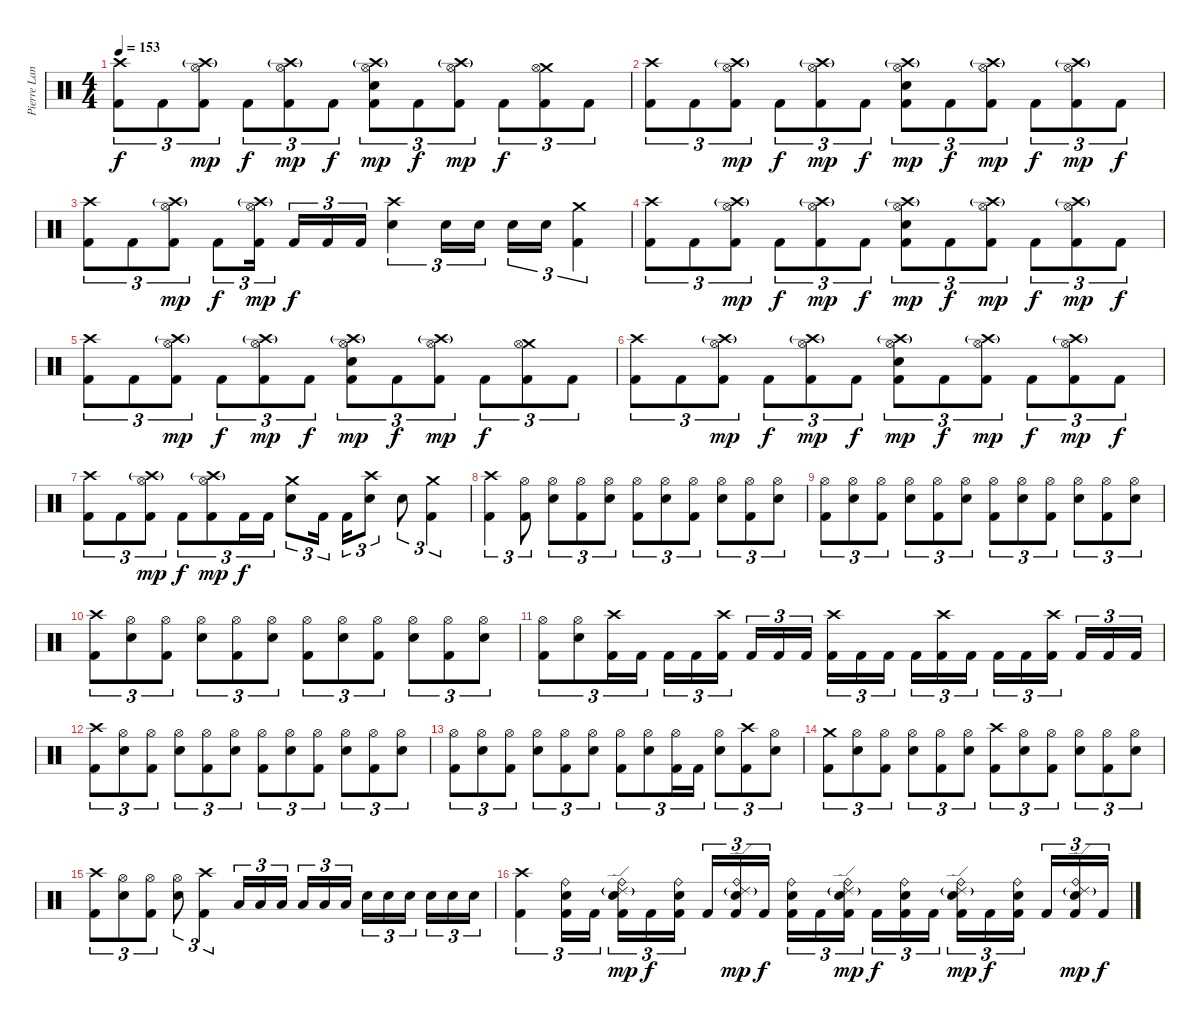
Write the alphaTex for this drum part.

\track ("Pierre Langlois (Drums)" "Pierre Lan") {instrument percussion}
\staff {score}
\articulation defaults
\ts (4 4)
\tempo 153
\clef neutral
\ks c
("Crash high (hit)" "Kick (hit) 2").8{tu (3 2) dy f} "Kick (hit) 2".8{tu (3 2)} ("Crash high (hit)"{g} "Hi-Hat (open)" "Kick (hit) 2").8{tu (3 2) dy mp} "Kick (hit) 2".8{tu (3 2) dy f} ("Crash high (hit)"{g} "Hi-Hat (open)" "Kick (hit) 2").8{tu (3 2) dy mp} "Kick (hit) 2".8{tu (3 2) dy f} ("Crash high (hit)"{g} "Snare (hit) 2" "Hi-Hat (open)" "Kick (hit) 2").8{tu (3 2) dy mp} "Kick (hit) 2".8{tu (3 2) dy f} ("Crash high (hit)"{g} "Hi-Hat (open)" "Kick (hit) 2").8{tu (3 2) dy mp} "Kick (hit) 2".8{tu (3 2) dy f} ("Crash medium (hit)" "Hi-Hat (open)" "Kick (hit) 2").8{tu (3 2)} "Kick (hit) 2".8{tu (3 2)} |
("Crash high (hit)" "Kick (hit) 2").8{tu (3 2)} "Kick (hit) 2".8{tu (3 2)} ("Crash high (hit)"{g} "Hi-Hat (open)" "Kick (hit) 2").8{tu (3 2) dy mp} "Kick (hit) 2".8{tu (3 2) dy f} ("Crash high (hit)"{g} "Hi-Hat (open)" "Kick (hit) 2").8{tu (3 2) dy mp} "Kick (hit) 2".8{tu (3 2) dy f} ("Crash high (hit)"{g} "Snare (hit) 2" "Hi-Hat (open)" "Kick (hit) 2").8{tu (3 2) dy mp} "Kick (hit) 2".8{tu (3 2) dy f} ("Crash high (hit)"{g} "Hi-Hat (open)" "Kick (hit) 2").8{tu (3 2) dy mp} "Kick (hit) 2".8{tu (3 2) dy f} ("Crash high (hit)"{g} "Hi-Hat (open)" "Kick (hit) 2").8{tu (3 2) dy mp} "Kick (hit) 2".8{tu (3 2) dy f} |
("Crash high (hit)" "Kick (hit) 2").8{tu (3 2)} "Kick (hit) 2".8{tu (3 2)} ("Crash high (hit)"{g} "Hi-Hat (open)" "Kick (hit) 2").8{tu (3 2) dy mp} "Kick (hit) 2".8{tu (3 2) dy f} ("Crash high (hit)"{g} "Hi-Hat (open)" "Kick (hit) 2").16{tu (3 2) dy mp} "Kick (hit) 2".16{tu (3 2) dy f} "Kick (hit) 2".16{tu (3 2)} "Kick (hit) 2".16{tu (3 2)} ("Crash high (hit)" "Snare (hit) 2").4{tu (3 2)} "Snare (hit) 2".16{tu (3 2)} "Snare (hit) 2".16{tu (3 2)} "Snare (hit) 2".16{tu (3 2)} "Snare (hit) 2".16{tu (3 2)} ("Crash medium (hit)" "Kick (hit) 2").4{tu (3 2)} |
("Crash high (hit)" "Kick (hit) 2").8{tu (3 2)} "Kick (hit) 2".8{tu (3 2)} ("Crash high (hit)"{g} "Hi-Hat (open)" "Kick (hit) 2").8{tu (3 2) dy mp} "Kick (hit) 2".8{tu (3 2) dy f} ("Crash high (hit)"{g} "Hi-Hat (open)" "Kick (hit) 2").8{tu (3 2) dy mp} "Kick (hit) 2".8{tu (3 2) dy f} ("Crash high (hit)"{g} "Snare (hit) 2" "Hi-Hat (open)" "Kick (hit) 2").8{tu (3 2) dy mp} "Kick (hit) 2".8{tu (3 2) dy f} ("Crash high (hit)"{g} "Hi-Hat (open)" "Kick (hit) 2").8{tu (3 2) dy mp} "Kick (hit) 2".8{tu (3 2) dy f} ("Crash high (hit)"{g} "Hi-Hat (open)" "Kick (hit) 2").8{tu (3 2) dy mp} "Kick (hit) 2".8{tu (3 2) dy f} |
("Crash high (hit)" "Kick (hit) 2").8{tu (3 2)} "Kick (hit) 2".8{tu (3 2)} ("Crash high (hit)"{g} "Hi-Hat (open)" "Kick (hit) 2").8{tu (3 2) dy mp} "Kick (hit) 2".8{tu (3 2) dy f} ("Crash high (hit)"{g} "Hi-Hat (open)" "Kick (hit) 2").8{tu (3 2) dy mp} "Kick (hit) 2".8{tu (3 2) dy f} ("Crash high (hit)"{g} "Snare (hit) 2" "Hi-Hat (open)" "Kick (hit) 2").8{tu (3 2) dy mp} "Kick (hit) 2".8{tu (3 2) dy f} ("Crash high (hit)"{g} "Hi-Hat (open)" "Kick (hit) 2").8{tu (3 2) dy mp} "Kick (hit) 2".8{tu (3 2) dy f} ("Crash medium (hit)" "Hi-Hat (open)" "Kick (hit) 2").8{tu (3 2)} "Kick (hit) 2".8{tu (3 2)} |
("Crash high (hit)" "Kick (hit) 2").8{tu (3 2)} "Kick (hit) 2".8{tu (3 2)} ("Crash high (hit)"{g} "Hi-Hat (open)" "Kick (hit) 2").8{tu (3 2) dy mp} "Kick (hit) 2".8{tu (3 2) dy f} ("Crash high (hit)"{g} "Hi-Hat (open)" "Kick (hit) 2").8{tu (3 2) dy mp} "Kick (hit) 2".8{tu (3 2) dy f} ("Crash high (hit)"{g} "Snare (hit) 2" "Hi-Hat (open)" "Kick (hit) 2").8{tu (3 2) dy mp} "Kick (hit) 2".8{tu (3 2) dy f} ("Crash high (hit)"{g} "Hi-Hat (open)" "Kick (hit) 2").8{tu (3 2) dy mp} "Kick (hit) 2".8{tu (3 2) dy f} ("Crash high (hit)"{g} "Hi-Hat (open)" "Kick (hit) 2").8{tu (3 2) dy mp} "Kick (hit) 2".8{tu (3 2) dy f} |
("Crash high (hit)" "Kick (hit) 2").8{tu (3 2)} "Kick (hit) 2".8{tu (3 2)} ("Crash high (hit)"{g} "Hi-Hat (open)" "Kick (hit) 2").8{tu (3 2) dy mp} "Kick (hit) 2".8{tu (3 2) dy f} ("Crash high (hit)"{g} "Hi-Hat (open)" "Kick (hit) 2").8{tu (3 2) dy mp} "Kick (hit) 2".16{tu (3 2) dy f} "Kick (hit) 2".16{tu (3 2)} ("Crash medium (hit)" "Snare (hit) 2").8{tu (3 2)} "Kick (hit) 2".16{tu (3 2)} "Kick (hit) 2".16{tu (3 2)} ("Crash high (hit)" "Snare (hit) 2").8{tu (3 2)} "Snare (hit) 2".8{tu (3 2)} ("Crash medium (hit)" "Kick (hit) 2").4{tu (3 2)} |
("Crash high (hit)" "Kick (hit) 2").4{tu (3 2)} ("Hi-Hat (open)" "Kick (hit) 2").8{tu (3 2)} ("Hi-Hat (open)" "Snare (hit) 2").8{tu (3 2)} ("Hi-Hat (open)" "Kick (hit) 2").8{tu (3 2)} ("Hi-Hat (open)" "Snare (hit) 2").8{tu (3 2)} ("Hi-Hat (open)" "Kick (hit) 2").8{tu (3 2)} ("Hi-Hat (open)" "Snare (hit) 2").8{tu (3 2)} ("Hi-Hat (open)" "Kick (hit) 2").8{tu (3 2)} ("Hi-Hat (open)" "Snare (hit) 2").8{tu (3 2)} ("Hi-Hat (open)" "Kick (hit) 2").8{tu (3 2)} ("Hi-Hat (open)" "Snare (hit) 2").8{tu (3 2)} |
("Hi-Hat (open)" "Kick (hit) 2").8{tu (3 2)} ("Hi-Hat (open)" "Snare (hit) 2").8{tu (3 2)} ("Hi-Hat (open)" "Kick (hit) 2").8{tu (3 2)} ("Hi-Hat (open)" "Snare (hit) 2").8{tu (3 2)} ("Hi-Hat (open)" "Kick (hit) 2").8{tu (3 2)} ("Hi-Hat (open)" "Snare (hit) 2").8{tu (3 2)} ("Hi-Hat (open)" "Kick (hit) 2").8{tu (3 2)} ("Hi-Hat (open)" "Snare (hit) 2").8{tu (3 2)} ("Hi-Hat (open)" "Kick (hit) 2").8{tu (3 2)} ("Hi-Hat (open)" "Snare (hit) 2").8{tu (3 2)} ("Hi-Hat (open)" "Kick (hit) 2").8{tu (3 2)} ("Hi-Hat (open)" "Snare (hit) 2").8{tu (3 2)} |
("Crash high (hit)" "Kick (hit) 2").8{tu (3 2)} ("Hi-Hat (open)" "Snare (hit) 2").8{tu (3 2)} ("Hi-Hat (open)" "Kick (hit) 2").8{tu (3 2)} ("Hi-Hat (open)" "Snare (hit) 2").8{tu (3 2)} ("Hi-Hat (open)" "Kick (hit) 2").8{tu (3 2)} ("Hi-Hat (open)" "Snare (hit) 2").8{tu (3 2)} ("Hi-Hat (open)" "Kick (hit) 2").8{tu (3 2)} ("Hi-Hat (open)" "Snare (hit) 2").8{tu (3 2)} ("Hi-Hat (open)" "Kick (hit) 2").8{tu (3 2)} ("Hi-Hat (open)" "Snare (hit) 2").8{tu (3 2)} ("Hi-Hat (open)" "Kick (hit) 2").8{tu (3 2)} ("Hi-Hat (open)" "Snare (hit) 2").8{tu (3 2)} |
("Hi-Hat (open)" "Kick (hit) 2").8{tu (3 2)} ("Hi-Hat (open)" "Snare (hit) 2").8{tu (3 2)} ("Crash high (hit)" "Kick (hit) 2").16{tu (3 2)} "Kick (hit) 2".16{tu (3 2)} "Kick (hit) 2".16{tu (3 2)} "Kick (hit) 2".16{tu (3 2)} ("Crash high (hit)" "Kick (hit) 2").16{tu (3 2)} "Kick (hit) 2".16{tu (3 2)} "Kick (hit) 2".16{tu (3 2)} "Kick (hit) 2".16{tu (3 2)} ("Crash high (hit)" "Kick (hit) 2").16{tu (3 2)} "Kick (hit) 2".16{tu (3 2)} "Kick (hit) 2".16{tu (3 2)} "Kick (hit) 2".16{tu (3 2)} ("Crash high (hit)" "Kick (hit) 2").16{tu (3 2)} "Kick (hit) 2".16{tu (3 2)} "Kick (hit) 2".16{tu (3 2)} "Kick (hit) 2".16{tu (3 2)} ("Crash high (hit)" "Kick (hit) 2").16{tu (3 2)} "Kick (hit) 2".16{tu (3 2)} "Kick (hit) 2".16{tu (3 2)} "Kick (hit) 2".16{tu (3 2)} |
("Crash high (hit)" "Kick (hit) 2").8{tu (3 2)} ("Hi-Hat (open)" "Snare (hit) 2").8{tu (3 2)} ("Hi-Hat (open)" "Kick (hit) 2").8{tu (3 2)} ("Hi-Hat (open)" "Snare (hit) 2").8{tu (3 2)} ("Hi-Hat (open)" "Kick (hit) 2").8{tu (3 2)} ("Hi-Hat (open)" "Snare (hit) 2").8{tu (3 2)} ("Hi-Hat (open)" "Kick (hit) 2").8{tu (3 2)} ("Hi-Hat (open)" "Snare (hit) 2").8{tu (3 2)} ("Hi-Hat (open)" "Kick (hit) 2").8{tu (3 2)} ("Hi-Hat (open)" "Snare (hit) 2").8{tu (3 2)} ("Hi-Hat (open)" "Kick (hit) 2").8{tu (3 2)} ("Hi-Hat (open)" "Snare (hit) 2").8{tu (3 2)} |
("Hi-Hat (open)" "Kick (hit) 2").8{tu (3 2)} ("Hi-Hat (open)" "Snare (hit) 2").8{tu (3 2)} ("Hi-Hat (open)" "Kick (hit) 2").8{tu (3 2)} ("Hi-Hat (open)" "Snare (hit) 2").8{tu (3 2)} ("Hi-Hat (open)" "Kick (hit) 2").8{tu (3 2)} ("Hi-Hat (open)" "Snare (hit) 2").8{tu (3 2)} ("Hi-Hat (open)" "Kick (hit) 2").8{tu (3 2)} ("Hi-Hat (open)" "Snare (hit) 2").8{tu (3 2)} ("Hi-Hat (open)" "Kick (hit) 2").16{tu (3 2)} "Kick (hit) 2".16{tu (3 2)} ("Hi-Hat (open)" "Snare (hit) 2").8{tu (3 2)} ("Crash high (hit)" "Kick (hit) 2").8{tu (3 2)} ("Hi-Hat (open)" "Snare (hit) 2").8{tu (3 2)} |
("Crash medium (hit)" "Kick (hit) 2").8{tu (3 2)} ("Hi-Hat (open)" "Snare (hit) 2").8{tu (3 2)} ("Hi-Hat (open)" "Kick (hit) 2").8{tu (3 2)} ("Hi-Hat (open)" "Snare (hit) 2").8{tu (3 2)} ("Hi-Hat (open)" "Kick (hit) 2").8{tu (3 2)} ("Hi-Hat (open)" "Snare (hit) 2").8{tu (3 2)} ("Crash high (hit)" "Kick (hit) 2").8{tu (3 2)} ("Hi-Hat (open)" "Snare (hit) 2").8{tu (3 2)} ("Hi-Hat (open)" "Kick (hit) 2").8{tu (3 2)} ("Hi-Hat (open)" "Snare (hit) 2").8{tu (3 2)} ("Hi-Hat (open)" "Kick (hit) 2").8{tu (3 2)} ("Hi-Hat (open)" "Snare (hit) 2").8{tu (3 2)} |
("Crash high (hit)" "Kick (hit) 2").8{tu (3 2)} ("Hi-Hat (open)" "Snare (hit) 2").8{tu (3 2)} ("Hi-Hat (open)" "Kick (hit) 2").8{tu (3 2)} ("Hi-Hat (open)" "Snare (hit) 2").8{tu (3 2)} ("Crash high (hit)" "Kick (hit) 2").4{tu (3 2)} "Low Tom (hit)".16{tu (3 2)} "Low Tom (hit)".16{tu (3 2)} "Low Tom (hit)".16{tu (3 2)} "Low Tom (hit)".16{tu (3 2)} "Low Tom (hit)".16{tu (3 2)} "Low Tom (hit)".16{tu (3 2)} "Snare (hit) 2".16{tu (3 2)} "Snare (hit) 2".16{tu (3 2)} "Snare (hit) 2".16{tu (3 2)} "Snare (hit) 2".16{tu (3 2)} "Snare (hit) 2".16{tu (3 2)} "Snare (hit) 2".16{tu (3 2)} |
("Crash high (hit)" "Kick (hit) 2").4{tu (3 2)} ("Ride (bell)" "Snare (hit) 2" "Kick (hit) 2").16{tu (3 2)} "Kick (hit) 2".16{tu (3 2)} ("Ride (bell)" "Ride (edge) 2"{g} "Snare (hit) 2" "Kick (hit) 2").16{tu (3 2) dy mp} "Kick (hit) 2".16{tu (3 2) dy f} ("Ride (bell)" "Snare (hit) 2" "Kick (hit) 2").16{tu (3 2)} "Kick (hit) 2".16{tu (3 2)} ("Ride (bell)" "Ride (edge) 2"{g} "Snare (hit) 2" "Kick (hit) 2").16{tu (3 2) dy mp} "Kick (hit) 2".16{tu (3 2) dy f} ("Ride (bell)" "Snare (hit) 2" "Kick (hit) 2").16{tu (3 2)} "Kick (hit) 2".16{tu (3 2)} ("Ride (bell)" "Ride (edge) 2"{g} "Snare (hit) 2" "Kick (hit) 2").16{tu (3 2) dy mp} "Kick (hit) 2".16{tu (3 2) dy f} ("Ride (bell)" "Snare (hit) 2" "Kick (hit) 2").16{tu (3 2)} "Kick (hit) 2".16{tu (3 2)} ("Ride (bell)" "Ride (edge) 2"{g} "Snare (hit) 2" "Kick (hit) 2").16{tu (3 2) dy mp} "Kick (hit) 2".16{tu (3 2) dy f} ("Ride (bell)" "Snare (hit) 2" "Kick (hit) 2").16{tu (3 2)} "Kick (hit) 2".16{tu (3 2)} ("Ride (bell)" "Ride (edge) 2"{g} "Snare (hit) 2" "Kick (hit) 2").16{tu (3 2) dy mp} "Kick (hit) 2".16{tu (3 2) dy f}
